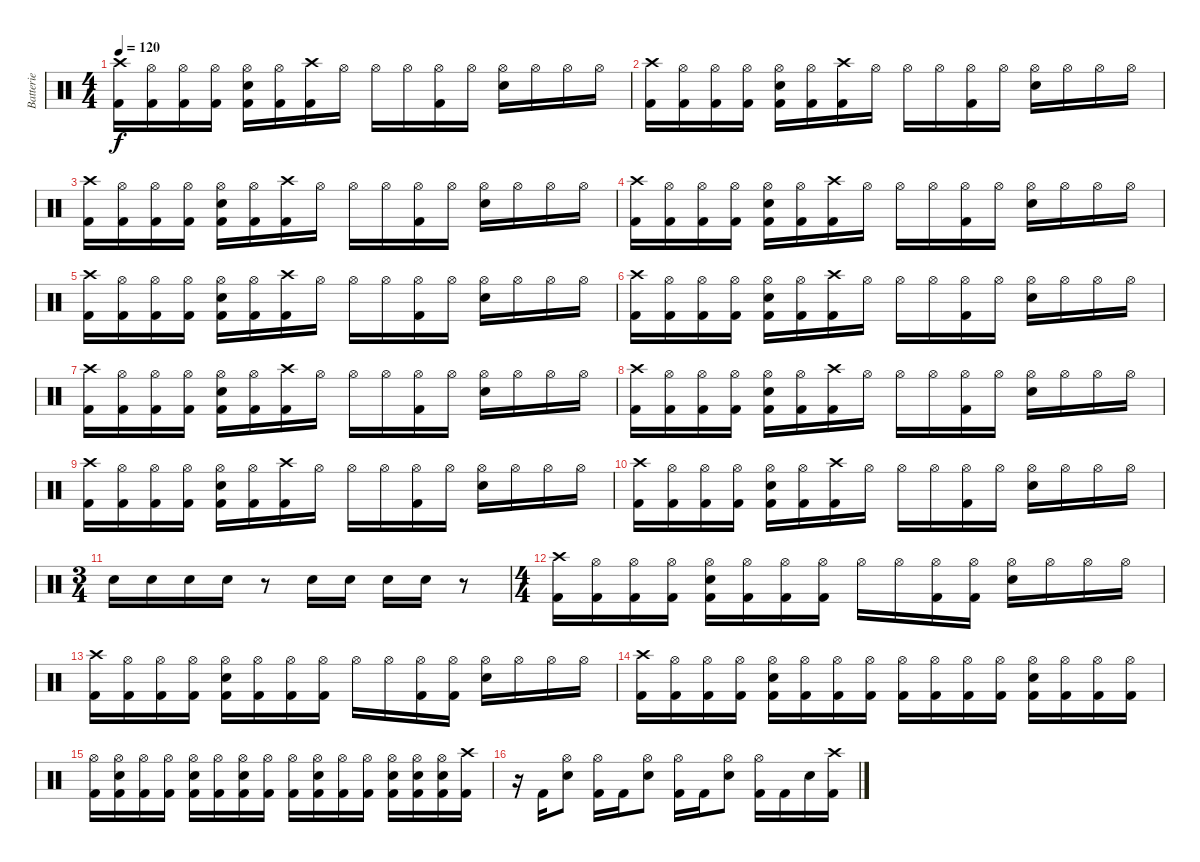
\track ("Batterie" "Batterie") {instrument percussion}
\staff {score}
\articulation defaults
\ts (4 4)
\tempo 120
\clef neutral
\ks c
("Crash high (hit)" "Kick (hit) 2").16{dy f} ("Hi-Hat (open)" "Kick (hit) 2").16 ("Hi-Hat (open)" "Kick (hit) 2").16 ("Hi-Hat (open)" "Kick (hit) 2").16 ("Electric Snare (hit)" "Hi-Hat (open)" "Kick (hit) 2").16 ("Hi-Hat (open)" "Kick (hit) 2").16 ("Crash high (hit)" "Kick (hit) 2").16 "Hi-Hat (open)".16 "Hi-Hat (open)".16 "Hi-Hat (open)".16 ("Hi-Hat (open)" "Kick (hit) 2").16 "Hi-Hat (open)".16 ("Hi-Hat (open)" "Electric Snare (hit)").16 "Hi-Hat (open)".16 "Hi-Hat (open)".16 "Hi-Hat (open)".16 |
("Crash high (hit)" "Kick (hit) 2").16 ("Hi-Hat (open)" "Kick (hit) 2").16 ("Hi-Hat (open)" "Kick (hit) 2").16 ("Hi-Hat (open)" "Kick (hit) 2").16 ("Electric Snare (hit)" "Hi-Hat (open)" "Kick (hit) 2").16 ("Hi-Hat (open)" "Kick (hit) 2").16 ("Crash high (hit)" "Kick (hit) 2").16 "Hi-Hat (open)".16 "Hi-Hat (open)".16 "Hi-Hat (open)".16 ("Hi-Hat (open)" "Kick (hit) 2").16 "Hi-Hat (open)".16 ("Hi-Hat (open)" "Electric Snare (hit)").16 "Hi-Hat (open)".16 "Hi-Hat (open)".16 "Hi-Hat (open)".16 |
("Crash high (hit)" "Kick (hit) 2").16 ("Hi-Hat (open)" "Kick (hit) 2").16 ("Hi-Hat (open)" "Kick (hit) 2").16 ("Hi-Hat (open)" "Kick (hit) 2").16 ("Electric Snare (hit)" "Hi-Hat (open)" "Kick (hit) 2").16 ("Hi-Hat (open)" "Kick (hit) 2").16 ("Crash high (hit)" "Kick (hit) 2").16 "Hi-Hat (open)".16 "Hi-Hat (open)".16 "Hi-Hat (open)".16 ("Hi-Hat (open)" "Kick (hit) 2").16 "Hi-Hat (open)".16 ("Hi-Hat (open)" "Electric Snare (hit)").16 "Hi-Hat (open)".16 "Hi-Hat (open)".16 "Hi-Hat (open)".16 |
("Crash high (hit)" "Kick (hit) 2").16 ("Hi-Hat (open)" "Kick (hit) 2").16 ("Hi-Hat (open)" "Kick (hit) 2").16 ("Hi-Hat (open)" "Kick (hit) 2").16 ("Electric Snare (hit)" "Hi-Hat (open)" "Kick (hit) 2").16 ("Hi-Hat (open)" "Kick (hit) 2").16 ("Crash high (hit)" "Kick (hit) 2").16 "Hi-Hat (open)".16 "Hi-Hat (open)".16 "Hi-Hat (open)".16 ("Hi-Hat (open)" "Kick (hit) 2").16 "Hi-Hat (open)".16 ("Hi-Hat (open)" "Electric Snare (hit)").16 "Hi-Hat (open)".16 "Hi-Hat (open)".16 "Hi-Hat (open)".16 |
("Crash high (hit)" "Kick (hit) 2").16 ("Hi-Hat (open)" "Kick (hit) 2").16 ("Hi-Hat (open)" "Kick (hit) 2").16 ("Hi-Hat (open)" "Kick (hit) 2").16 ("Electric Snare (hit)" "Hi-Hat (open)" "Kick (hit) 2").16 ("Hi-Hat (open)" "Kick (hit) 2").16 ("Crash high (hit)" "Kick (hit) 2").16 "Hi-Hat (open)".16 "Hi-Hat (open)".16 "Hi-Hat (open)".16 ("Hi-Hat (open)" "Kick (hit) 2").16 "Hi-Hat (open)".16 ("Hi-Hat (open)" "Electric Snare (hit)").16 "Hi-Hat (open)".16 "Hi-Hat (open)".16 "Hi-Hat (open)".16 |
("Crash high (hit)" "Kick (hit) 2").16 ("Hi-Hat (open)" "Kick (hit) 2").16 ("Hi-Hat (open)" "Kick (hit) 2").16 ("Hi-Hat (open)" "Kick (hit) 2").16 ("Electric Snare (hit)" "Hi-Hat (open)" "Kick (hit) 2").16 ("Hi-Hat (open)" "Kick (hit) 2").16 ("Crash high (hit)" "Kick (hit) 2").16 "Hi-Hat (open)".16 "Hi-Hat (open)".16 "Hi-Hat (open)".16 ("Hi-Hat (open)" "Kick (hit) 2").16 "Hi-Hat (open)".16 ("Hi-Hat (open)" "Electric Snare (hit)").16 "Hi-Hat (open)".16 "Hi-Hat (open)".16 "Hi-Hat (open)".16 |
("Crash high (hit)" "Kick (hit) 2").16 ("Hi-Hat (open)" "Kick (hit) 2").16 ("Hi-Hat (open)" "Kick (hit) 2").16 ("Hi-Hat (open)" "Kick (hit) 2").16 ("Electric Snare (hit)" "Hi-Hat (open)" "Kick (hit) 2").16 ("Hi-Hat (open)" "Kick (hit) 2").16 ("Crash high (hit)" "Kick (hit) 2").16 "Hi-Hat (open)".16 "Hi-Hat (open)".16 "Hi-Hat (open)".16 ("Hi-Hat (open)" "Kick (hit) 2").16 "Hi-Hat (open)".16 ("Hi-Hat (open)" "Electric Snare (hit)").16 "Hi-Hat (open)".16 "Hi-Hat (open)".16 "Hi-Hat (open)".16 |
("Crash high (hit)" "Kick (hit) 2").16 ("Hi-Hat (open)" "Kick (hit) 2").16 ("Hi-Hat (open)" "Kick (hit) 2").16 ("Hi-Hat (open)" "Kick (hit) 2").16 ("Electric Snare (hit)" "Hi-Hat (open)" "Kick (hit) 2").16 ("Hi-Hat (open)" "Kick (hit) 2").16 ("Crash high (hit)" "Kick (hit) 2").16 "Hi-Hat (open)".16 "Hi-Hat (open)".16 "Hi-Hat (open)".16 ("Hi-Hat (open)" "Kick (hit) 2").16 "Hi-Hat (open)".16 ("Hi-Hat (open)" "Electric Snare (hit)").16 "Hi-Hat (open)".16 "Hi-Hat (open)".16 "Hi-Hat (open)".16 |
("Crash high (hit)" "Kick (hit) 2").16 ("Hi-Hat (open)" "Kick (hit) 2").16 ("Hi-Hat (open)" "Kick (hit) 2").16 ("Hi-Hat (open)" "Kick (hit) 2").16 ("Electric Snare (hit)" "Hi-Hat (open)" "Kick (hit) 2").16 ("Hi-Hat (open)" "Kick (hit) 2").16 ("Crash high (hit)" "Kick (hit) 2").16 "Hi-Hat (open)".16 "Hi-Hat (open)".16 "Hi-Hat (open)".16 ("Hi-Hat (open)" "Kick (hit) 2").16 "Hi-Hat (open)".16 ("Hi-Hat (open)" "Electric Snare (hit)").16 "Hi-Hat (open)".16 "Hi-Hat (open)".16 "Hi-Hat (open)".16 |
("Crash high (hit)" "Kick (hit) 2").16 ("Hi-Hat (open)" "Kick (hit) 2").16 ("Hi-Hat (open)" "Kick (hit) 2").16 ("Hi-Hat (open)" "Kick (hit) 2").16 ("Electric Snare (hit)" "Hi-Hat (open)" "Kick (hit) 2").16 ("Hi-Hat (open)" "Kick (hit) 2").16 ("Crash high (hit)" "Kick (hit) 2").16 "Hi-Hat (open)".16 "Hi-Hat (open)".16 "Hi-Hat (open)".16 ("Hi-Hat (open)" "Kick (hit) 2").16 "Hi-Hat (open)".16 ("Hi-Hat (open)" "Electric Snare (hit)").16 "Hi-Hat (open)".16 "Hi-Hat (open)".16 "Hi-Hat (open)".16 |
\ts (3 4)
"Electric Snare (hit)".16 "Electric Snare (hit)".16 "Electric Snare (hit)".16 "Electric Snare (hit)".16 r.8 "Electric Snare (hit)".16 "Electric Snare (hit)".16 "Electric Snare (hit)".16 "Electric Snare (hit)".16 r.8 |
\ts (4 4)
("Crash high (hit)" "Kick (hit) 2").16 ("Hi-Hat (open)" "Kick (hit) 2").16 ("Hi-Hat (open)" "Kick (hit) 2").16 ("Hi-Hat (open)" "Kick (hit) 2").16 ("Hi-Hat (open)" "Electric Snare (hit)" "Kick (hit) 2").16 ("Hi-Hat (open)" "Kick (hit) 2").16 ("Hi-Hat (open)" "Kick (hit) 2").16 ("Hi-Hat (open)" "Kick (hit) 2").16 "Hi-Hat (open)".16 "Hi-Hat (open)".16 ("Hi-Hat (open)" "Kick (hit) 2").16 ("Hi-Hat (open)" "Kick (hit) 2").16 ("Hi-Hat (open)" "Electric Snare (hit)").16 "Hi-Hat (open)".16 "Hi-Hat (open)".16 "Hi-Hat (open)".16 |
("Crash high (hit)" "Kick (hit) 2").16 ("Hi-Hat (open)" "Kick (hit) 2").16 ("Hi-Hat (open)" "Kick (hit) 2").16 ("Hi-Hat (open)" "Kick (hit) 2").16 ("Hi-Hat (open)" "Electric Snare (hit)" "Kick (hit) 2").16 ("Hi-Hat (open)" "Kick (hit) 2").16 ("Hi-Hat (open)" "Kick (hit) 2").16 ("Hi-Hat (open)" "Kick (hit) 2").16 "Hi-Hat (open)".16 "Hi-Hat (open)".16 ("Hi-Hat (open)" "Kick (hit) 2").16 ("Hi-Hat (open)" "Kick (hit) 2").16 ("Hi-Hat (open)" "Electric Snare (hit)").16 "Hi-Hat (open)".16 "Hi-Hat (open)".16 "Hi-Hat (open)".16 |
("Crash high (hit)" "Kick (hit) 2").16 ("Hi-Hat (open)" "Kick (hit) 2").16 ("Hi-Hat (open)" "Kick (hit) 2").16 ("Hi-Hat (open)" "Kick (hit) 2").16 ("Hi-Hat (open)" "Kick (hit) 2" "Electric Snare (hit)").16 ("Hi-Hat (open)" "Kick (hit) 2").16 ("Hi-Hat (open)" "Kick (hit) 2").16 ("Hi-Hat (open)" "Kick (hit) 2").16 ("Hi-Hat (open)" "Kick (hit) 2").16 ("Hi-Hat (open)" "Kick (hit) 2").16 ("Hi-Hat (open)" "Kick (hit) 2").16 ("Hi-Hat (open)" "Kick (hit) 2").16 ("Hi-Hat (open)" "Kick (hit) 2" "Electric Snare (hit)").16 ("Hi-Hat (open)" "Kick (hit) 2").16 ("Hi-Hat (open)" "Kick (hit) 2").16 ("Hi-Hat (open)" "Kick (hit) 2").16 |
("Hi-Hat (open)" "Kick (hit) 2").16 ("Hi-Hat (open)" "Kick (hit) 2" "Electric Snare (hit)").16 ("Hi-Hat (open)" "Kick (hit) 2").16 ("Hi-Hat (open)" "Kick (hit) 2").16 ("Hi-Hat (open)" "Kick (hit) 2" "Electric Snare (hit)").16 ("Hi-Hat (open)" "Kick (hit) 2").16 ("Hi-Hat (open)" "Kick (hit) 2" "Electric Snare (hit)").16 ("Hi-Hat (open)" "Kick (hit) 2").16 ("Hi-Hat (open)" "Kick (hit) 2").16 ("Hi-Hat (open)" "Kick (hit) 2" "Electric Snare (hit)").16 ("Hi-Hat (open)" "Kick (hit) 2").16 ("Hi-Hat (open)" "Kick (hit) 2").16 ("Hi-Hat (open)" "Kick (hit) 2" "Electric Snare (hit)").16 ("Hi-Hat (open)" "Kick (hit) 2" "Electric Snare (hit)").16 ("Hi-Hat (open)" "Kick (hit) 2" "Electric Snare (hit)").16 ("Crash high (hit)" "Kick (hit) 2").16 |
r.16 "Kick (hit) 2".16 ("Hi-Hat (open)" "Electric Snare (hit)").8 ("Hi-Hat (open)" "Kick (hit) 2").16 "Kick (hit) 2".16 ("Hi-Hat (open)" "Electric Snare (hit)").8 ("Hi-Hat (open)" "Kick (hit) 2").16 "Kick (hit) 2".16 ("Hi-Hat (open)" "Electric Snare (hit)").8 ("Hi-Hat (open)" "Kick (hit) 2").16 "Kick (hit) 2".16 "Electric Snare (hit)".16 ("Crash high (hit)" "Kick (hit) 2").16
